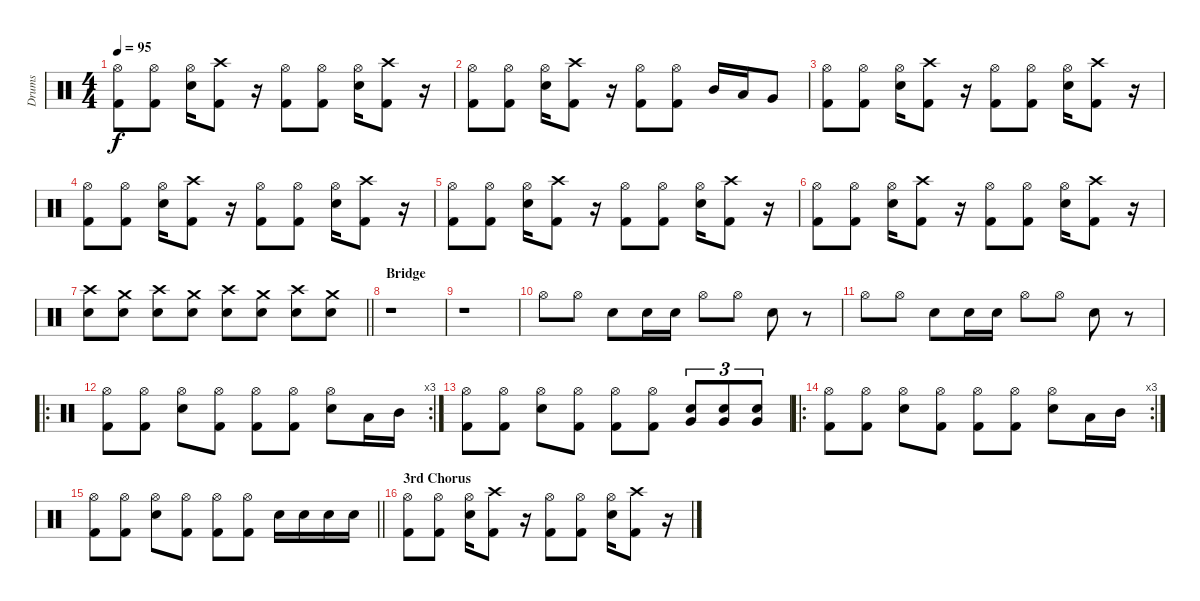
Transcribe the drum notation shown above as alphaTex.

\track ("Drums" "Drums") {instrument percussion}
\staff {score}
\articulation defaults
\ts (4 4)
\tempo 95
\clef neutral
\ks c
("Hi-Hat (open)" "Kick (hit) 2").8{dy f} ("Hi-Hat (open)" "Kick (hit) 2").8 ("Hi-Hat (open)" "Electric Snare (hit)").16 ("Crash high (hit)" "Kick (hit) 2").8 r.16 ("Hi-Hat (open)" "Kick (hit) 2").8 ("Hi-Hat (open)" "Kick (hit) 2").8 ("Hi-Hat (open)" "Electric Snare (hit)").16 ("Crash high (hit)" "Kick (hit) 2").8 r.16 |
("Hi-Hat (open)" "Kick (hit) 2").8 ("Hi-Hat (open)" "Kick (hit) 2").8 ("Hi-Hat (open)" "Electric Snare (hit)").16 ("Crash high (hit)" "Kick (hit) 2").8 r.16 ("Hi-Hat (open)" "Kick (hit) 2").8 ("Hi-Hat (open)" "Kick (hit) 2").8 "Mid Tom (hit)".16 "Low Tom (hit)".16 "Very Low Tom (hit)".8 |
("Hi-Hat (open)" "Kick (hit) 2").8 ("Hi-Hat (open)" "Kick (hit) 2").8 ("Hi-Hat (open)" "Electric Snare (hit)").16 ("Crash high (hit)" "Kick (hit) 2").8 r.16 ("Hi-Hat (open)" "Kick (hit) 2").8 ("Hi-Hat (open)" "Kick (hit) 2").8 ("Hi-Hat (open)" "Electric Snare (hit)").16 ("Crash high (hit)" "Kick (hit) 2").8 r.16 |
("Hi-Hat (open)" "Kick (hit) 2").8 ("Hi-Hat (open)" "Kick (hit) 2").8 ("Hi-Hat (open)" "Electric Snare (hit)").16 ("Crash high (hit)" "Kick (hit) 2").8 r.16 ("Hi-Hat (open)" "Kick (hit) 2").8 ("Hi-Hat (open)" "Kick (hit) 2").8 ("Hi-Hat (open)" "Electric Snare (hit)").16 ("Crash high (hit)" "Kick (hit) 2").8 r.16 |
("Hi-Hat (open)" "Kick (hit) 2").8 ("Hi-Hat (open)" "Kick (hit) 2").8 ("Hi-Hat (open)" "Electric Snare (hit)").16 ("Crash high (hit)" "Kick (hit) 2").8 r.16 ("Hi-Hat (open)" "Kick (hit) 2").8 ("Hi-Hat (open)" "Kick (hit) 2").8 ("Hi-Hat (open)" "Electric Snare (hit)").16 ("Crash high (hit)" "Kick (hit) 2").8 r.16 |
("Hi-Hat (open)" "Kick (hit) 2").8 ("Hi-Hat (open)" "Kick (hit) 2").8 ("Hi-Hat (open)" "Electric Snare (hit)").16 ("Crash high (hit)" "Kick (hit) 2").8 r.16 ("Hi-Hat (open)" "Kick (hit) 2").8 ("Hi-Hat (open)" "Kick (hit) 2").8 ("Hi-Hat (open)" "Electric Snare (hit)").16 ("Crash high (hit)" "Kick (hit) 2").8 r.16 |
\barLineRight lightlight
("Crash high (hit)" "Electric Snare (hit)").8 ("Crash medium (hit)" "Electric Snare (hit)").8 ("Crash high (hit)" "Electric Snare (hit)").8 ("Crash medium (hit)" "Electric Snare (hit)").8 ("Crash high (hit)" "Electric Snare (hit)").8 ("Crash medium (hit)" "Electric Snare (hit)").8 ("Crash high (hit)" "Electric Snare (hit)").8 ("Crash medium (hit)" "Electric Snare (hit)").8 |
\section ("" "Bridge")
r.1 |
r.1 |
"Hi-Hat (open)".8 "Hi-Hat (open)".8 "Hand Clap (hit)".8 "Hand Clap (hit)".16 "Hand Clap (hit)".16 "Hi-Hat (open)".8 "Hi-Hat (open)".8 "Hand Clap (hit)".8 r.8 |
"Hi-Hat (open)".8 "Hi-Hat (open)".8 "Hand Clap (hit)".8 "Hand Clap (hit)".16 "Hand Clap (hit)".16 "Hi-Hat (open)".8 "Hi-Hat (open)".8 "Hand Clap (hit)".8 r.8 |
\ro
\rc 3
("Hi-Hat (open)" "Kick (hit) 2").8 ("Hi-Hat (open)" "Kick (hit) 2").8 ("Hi-Hat (open)" "Electric Snare (hit)").8 ("Hi-Hat (open)" "Kick (hit) 2").8 ("Hi-Hat (open)" "Kick (hit) 2").8 ("Hi-Hat (open)" "Kick (hit) 2").8 ("Hi-Hat (open)" "Electric Snare (hit)").8 "Low Tom (hit)".16 "Mid Tom (hit)".16 |
("Hi-Hat (open)" "Kick (hit) 2").8 ("Hi-Hat (open)" "Kick (hit) 2").8 ("Hi-Hat (open)" "Electric Snare (hit)").8 ("Hi-Hat (open)" "Kick (hit) 2").8 ("Hi-Hat (open)" "Kick (hit) 2").8 ("Hi-Hat (open)" "Kick (hit) 2").8 ("Very Low Tom (hit)" "Electric Snare (hit)").8{tu (3 2)} ("Very Low Tom (hit)" "Electric Snare (hit)").8{tu (3 2)} ("Very Low Tom (hit)" "Electric Snare (hit)").8{tu (3 2)} |
\ro
\rc 3
("Hi-Hat (open)" "Kick (hit) 2").8 ("Hi-Hat (open)" "Kick (hit) 2").8 ("Hi-Hat (open)" "Electric Snare (hit)").8 ("Hi-Hat (open)" "Kick (hit) 2").8 ("Hi-Hat (open)" "Kick (hit) 2").8 ("Hi-Hat (open)" "Kick (hit) 2").8 ("Hi-Hat (open)" "Electric Snare (hit)").8 "Low Tom (hit)".16 "Mid Tom (hit)".16 |
\barLineRight lightlight
("Hi-Hat (open)" "Kick (hit) 2").8 ("Hi-Hat (open)" "Kick (hit) 2").8 ("Hi-Hat (open)" "Electric Snare (hit)").8 ("Hi-Hat (open)" "Kick (hit) 2").8 ("Hi-Hat (open)" "Kick (hit) 2").8 ("Hi-Hat (open)" "Kick (hit) 2").8 "Electric Snare (hit)".16 "Electric Snare (hit)".16 "Electric Snare (hit)".16 "Electric Snare (hit)".16 |
\section ("" "3rd Chorus")
("Hi-Hat (open)" "Kick (hit) 2").8 ("Hi-Hat (open)" "Kick (hit) 2").8 ("Hi-Hat (open)" "Electric Snare (hit)").16 ("Crash high (hit)" "Kick (hit) 2").8 r.16 ("Hi-Hat (open)" "Kick (hit) 2").8 ("Hi-Hat (open)" "Kick (hit) 2").8 ("Hi-Hat (open)" "Electric Snare (hit)").16 ("Crash high (hit)" "Kick (hit) 2").8 r.16
